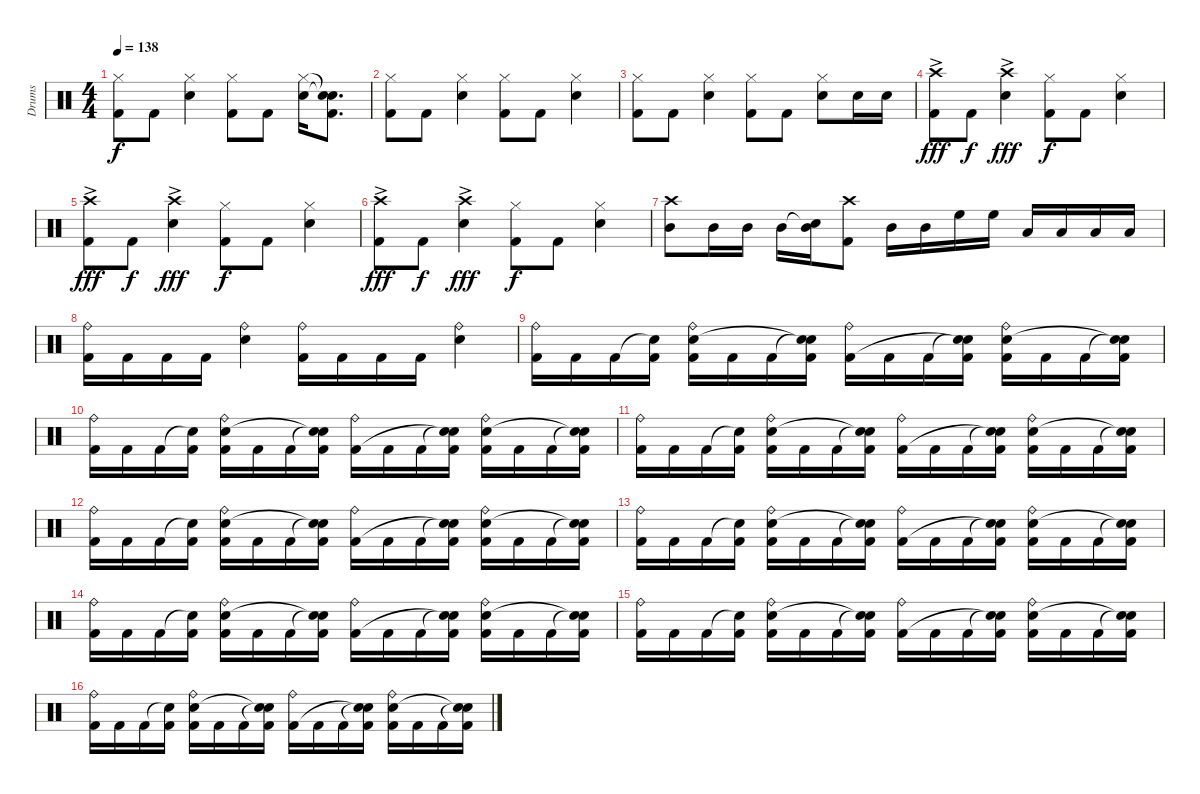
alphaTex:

\track ("Drums" "Drums") {instrument percussion}
\staff {score}
\articulation defaults
\ts (4 4)
\tempo 138
\clef neutral
\ks c
("Hi-Hat (closed)" "Kick (hit) 2").8{dy f} "Kick (hit) 2".8 ("Hi-Hat (closed)" "Snare (hit) 2").4 ("Hi-Hat (closed)" "Kick (hit) 2").8 "Kick (hit) 2".8 ("Hi-Hat (closed)" "Snare (hit) 2").16 ("Snare (hit)"{t} "Snare (hit)"{t} "Kick (hit) 2").8{d} |
("Hi-Hat (closed)" "Kick (hit) 2").8 "Kick (hit) 2".8 ("Hi-Hat (closed)" "Snare (hit) 2").4 ("Hi-Hat (closed)" "Kick (hit) 2").8 "Kick (hit) 2".8 ("Hi-Hat (closed)" "Snare (hit) 2").4 |
("Hi-Hat (closed)" "Kick (hit) 2").8 "Kick (hit) 2".8 ("Hi-Hat (closed)" "Snare (hit) 2").4 ("Hi-Hat (closed)" "Kick (hit) 2").8 "Kick (hit) 2".8 ("Hi-Hat (closed)" "Snare (hit) 2").8 "Snare (hit) 2".16 "Snare (hit) 2".16 |
("Crash high (hit)"{ac} "Kick (hit) 2").8{dy fff} "Kick (hit) 2".8{dy f} ("Crash high (hit)"{ac} "Snare (hit) 2").4{dy fff} ("Hi-Hat (closed)" "Kick (hit) 2").8{dy f} "Kick (hit) 2".8 ("Hi-Hat (closed)" "Snare (hit) 2").4 |
("Crash high (hit)"{ac} "Kick (hit) 2").8{dy fff} "Kick (hit) 2".8{dy f} ("Crash high (hit)"{ac} "Snare (hit) 2").4{dy fff} ("Hi-Hat (closed)" "Kick (hit) 2").8{dy f} "Kick (hit) 2".8 ("Hi-Hat (closed)" "Snare (hit) 2").4 |
("Crash high (hit)"{ac} "Kick (hit) 2").8{dy fff} "Kick (hit) 2".8{dy f} ("Crash high (hit)"{ac} "Snare (hit) 2").4{dy fff} ("Hi-Hat (closed)" "Kick (hit) 2").8{dy f} "Kick (hit) 2".8 ("Hi-Hat (closed)" "Snare (hit) 2").4 |
("Crash high (hit)" "Mid Tom (hit)").8 "Mid Tom (hit)".16 "Mid Tom (hit)".16 "Mid Tom (hit)".16 ("Snare (hit)"{t} "Mid Tom (hit)").16 ("Crash high (hit)" "Kick (hit) 2").8 "Mid Tom (hit)".16 "Mid Tom (hit)".16 "High Floor Tom (hit)".16 "High Floor Tom (hit)".16 "Low Tom (hit)".16 "Low Tom (hit)".16 "Low Floor Tom (hit)".16 "Low Floor Tom (hit)".16 |
("Ride (bell)" "Kick (hit) 2").16 "Kick (hit) 2".16 "Kick (hit) 2".16 "Kick (hit) 2".16 ("Ride (bell)" "Snare (hit) 2").4 ("Ride (bell)" "Kick (hit) 2").16 "Kick (hit) 2".16 "Kick (hit) 2".16 "Kick (hit) 2".16 ("Ride (bell)" "Snare (hit) 2").4 |
("Ride (bell)" "Kick (hit) 2").16 "Kick (hit) 2".16 "Kick (hit) 2".16 ("Snare (hit)"{t} "Kick (hit) 2").16 ("Ride (bell)" "Snare (hit) 2" "Kick (hit) 2").16 "Kick (hit) 2".16 "Kick (hit) 2".16 ("Snare (hit)"{t} "Snare (hit)"{t} "Kick (hit) 2").16 ("Ride (bell)" "Kick (hit) 2").16 "Kick (hit) 2".16 "Kick (hit) 2".16 ("Snare (hit)"{t} "Snare (hit)"{t} "Kick (hit) 2").16 ("Ride (bell)" "Snare (hit) 2" "Kick (hit) 2").16 "Kick (hit) 2".16 "Kick (hit) 2".16 ("Snare (hit)"{t} "Snare (hit)"{t} "Kick (hit) 2").16 |
("Ride (bell)" "Kick (hit) 2").16 "Kick (hit) 2".16 "Kick (hit) 2".16 ("Snare (hit)"{t} "Kick (hit) 2").16 ("Ride (bell)" "Snare (hit) 2" "Kick (hit) 2").16 "Kick (hit) 2".16 "Kick (hit) 2".16 ("Snare (hit)"{t} "Snare (hit)"{t} "Kick (hit) 2").16 ("Ride (bell)" "Kick (hit) 2").16 "Kick (hit) 2".16 "Kick (hit) 2".16 ("Snare (hit)"{t} "Snare (hit)"{t} "Kick (hit) 2").16 ("Ride (bell)" "Snare (hit) 2" "Kick (hit) 2").16 "Kick (hit) 2".16 "Kick (hit) 2".16 ("Snare (hit)"{t} "Snare (hit)"{t} "Kick (hit) 2").16 |
("Ride (bell)" "Kick (hit) 2").16 "Kick (hit) 2".16 "Kick (hit) 2".16 ("Snare (hit)"{t} "Kick (hit) 2").16 ("Ride (bell)" "Snare (hit) 2" "Kick (hit) 2").16 "Kick (hit) 2".16 "Kick (hit) 2".16 ("Snare (hit)"{t} "Snare (hit)"{t} "Kick (hit) 2").16 ("Ride (bell)" "Kick (hit) 2").16 "Kick (hit) 2".16 "Kick (hit) 2".16 ("Snare (hit)"{t} "Snare (hit)"{t} "Kick (hit) 2").16 ("Ride (bell)" "Snare (hit) 2" "Kick (hit) 2").16 "Kick (hit) 2".16 "Kick (hit) 2".16 ("Snare (hit)"{t} "Snare (hit)"{t} "Kick (hit) 2").16 |
("Ride (bell)" "Kick (hit) 2").16 "Kick (hit) 2".16 "Kick (hit) 2".16 ("Snare (hit)"{t} "Kick (hit) 2").16 ("Ride (bell)" "Snare (hit) 2" "Kick (hit) 2").16 "Kick (hit) 2".16 "Kick (hit) 2".16 ("Snare (hit)"{t} "Snare (hit)"{t} "Kick (hit) 2").16 ("Ride (bell)" "Kick (hit) 2").16 "Kick (hit) 2".16 "Kick (hit) 2".16 ("Snare (hit)"{t} "Snare (hit)"{t} "Kick (hit) 2").16 ("Ride (bell)" "Snare (hit) 2" "Kick (hit) 2").16 "Kick (hit) 2".16 "Kick (hit) 2".16 ("Snare (hit)"{t} "Snare (hit)"{t} "Kick (hit) 2").16 |
("Ride (bell)" "Kick (hit) 2").16 "Kick (hit) 2".16 "Kick (hit) 2".16 ("Snare (hit)"{t} "Kick (hit) 2").16 ("Ride (bell)" "Snare (hit) 2" "Kick (hit) 2").16 "Kick (hit) 2".16 "Kick (hit) 2".16 ("Snare (hit)"{t} "Snare (hit)"{t} "Kick (hit) 2").16 ("Ride (bell)" "Kick (hit) 2").16 "Kick (hit) 2".16 "Kick (hit) 2".16 ("Snare (hit)"{t} "Snare (hit)"{t} "Kick (hit) 2").16 ("Ride (bell)" "Snare (hit) 2" "Kick (hit) 2").16 "Kick (hit) 2".16 "Kick (hit) 2".16 ("Snare (hit)"{t} "Snare (hit)"{t} "Kick (hit) 2").16 |
("Ride (bell)" "Kick (hit) 2").16 "Kick (hit) 2".16 "Kick (hit) 2".16 ("Snare (hit)"{t} "Kick (hit) 2").16 ("Ride (bell)" "Snare (hit) 2" "Kick (hit) 2").16 "Kick (hit) 2".16 "Kick (hit) 2".16 ("Snare (hit)"{t} "Snare (hit)"{t} "Kick (hit) 2").16 ("Ride (bell)" "Kick (hit) 2").16 "Kick (hit) 2".16 "Kick (hit) 2".16 ("Snare (hit)"{t} "Snare (hit)"{t} "Kick (hit) 2").16 ("Ride (bell)" "Snare (hit) 2" "Kick (hit) 2").16 "Kick (hit) 2".16 "Kick (hit) 2".16 ("Snare (hit)"{t} "Snare (hit)"{t} "Kick (hit) 2").16 |
("Ride (bell)" "Kick (hit) 2").16 "Kick (hit) 2".16 "Kick (hit) 2".16 ("Snare (hit)"{t} "Kick (hit) 2").16 ("Ride (bell)" "Snare (hit) 2" "Kick (hit) 2").16 "Kick (hit) 2".16 "Kick (hit) 2".16 ("Snare (hit)"{t} "Snare (hit)"{t} "Kick (hit) 2").16 ("Ride (bell)" "Kick (hit) 2").16 "Kick (hit) 2".16 "Kick (hit) 2".16 ("Snare (hit)"{t} "Snare (hit)"{t} "Kick (hit) 2").16 ("Ride (bell)" "Snare (hit) 2" "Kick (hit) 2").16 "Kick (hit) 2".16 "Kick (hit) 2".16 ("Snare (hit)"{t} "Snare (hit)"{t} "Kick (hit) 2").16 |
("Ride (bell)" "Kick (hit) 2").16 "Kick (hit) 2".16 "Kick (hit) 2".16 ("Snare (hit)"{t} "Kick (hit) 2").16 ("Ride (bell)" "Snare (hit) 2" "Kick (hit) 2").16 "Kick (hit) 2".16 "Kick (hit) 2".16 ("Snare (hit)"{t} "Snare (hit)"{t} "Kick (hit) 2").16 ("Ride (bell)" "Kick (hit) 2").16 "Kick (hit) 2".16 "Kick (hit) 2".16 ("Snare (hit)"{t} "Snare (hit)"{t} "Kick (hit) 2").16 ("Ride (bell)" "Snare (hit) 2" "Kick (hit) 2").16 "Kick (hit) 2".16 "Kick (hit) 2".16 ("Snare (hit)"{t} "Snare (hit)"{t} "Kick (hit) 2").16
